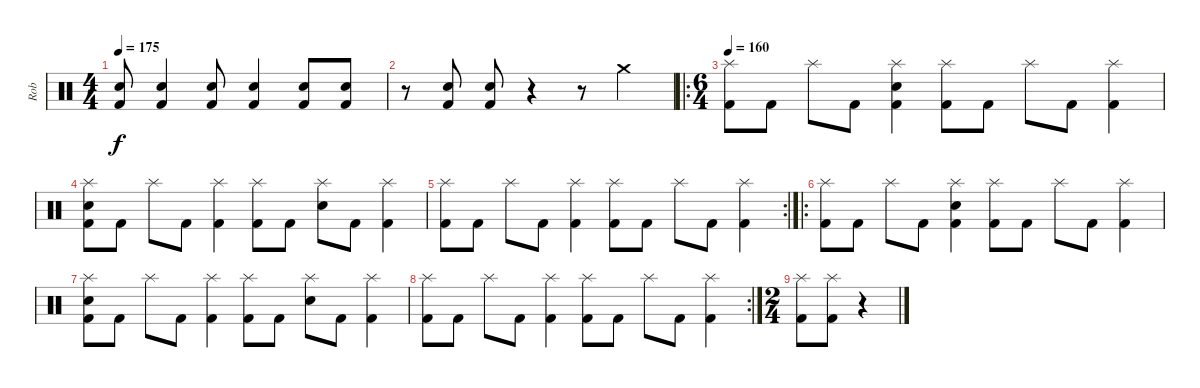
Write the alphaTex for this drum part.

\track ("Rob" "Rob") {instrument percussion}
\staff {score}
\articulation defaults
\ts (4 4)
\tempo 175
\clef neutral
\ks c
("Electric Snare (hit)" "Kick (hit) 2").8{dy f} ("Electric Snare (hit)" "Kick (hit) 2").4 ("Electric Snare (hit)" "Kick (hit) 2").8 ("Electric Snare (hit)" "Kick (hit) 2").4 ("Electric Snare (hit)" "Kick (hit) 2").8 ("Electric Snare (hit)" "Kick (hit) 2").8 |
r.8 ("Electric Snare (hit)" "Kick (hit) 2").8 ("Electric Snare (hit)" "Kick (hit) 2").8 r.4 r.8 "Crash medium (hit)".4 |
\ro
\ts (6 4)
\tempo 160
("Splash (hit)" "Kick (hit) 2").8{volume 16} "Kick (hit) 2".8 "Splash (hit)".8 "Kick (hit) 2".8 ("Splash (hit)" "Electric Snare (hit)" "Kick (hit) 2").4 ("Splash (hit)" "Kick (hit) 2").8 "Kick (hit) 2".8 "Splash (hit)".8 "Kick (hit) 2".8 ("Splash (hit)" "Kick (hit) 2").4 |
("Splash (hit)" "Electric Snare (hit)" "Kick (hit) 2").8 "Kick (hit) 2".8 "Splash (hit)".8 "Kick (hit) 2".8 ("Splash (hit)" "Kick (hit) 2").4 ("Splash (hit)" "Kick (hit) 2").8 "Kick (hit) 2".8 ("Splash (hit)" "Electric Snare (hit)").8 "Kick (hit) 2".8 ("Splash (hit)" "Kick (hit) 2").4 |
\rc 2
("Splash (hit)" "Kick (hit) 2").8 "Kick (hit) 2".8 "Splash (hit)".8 "Kick (hit) 2".8 ("Splash (hit)" "Kick (hit) 2").4 ("Splash (hit)" "Kick (hit) 2").8 "Kick (hit) 2".8 "Splash (hit)".8 "Kick (hit) 2".8 ("Splash (hit)" "Kick (hit) 2").4 |
\ro
("Splash (hit)" "Kick (hit) 2").8{volume 16} "Kick (hit) 2".8 "Splash (hit)".8 "Kick (hit) 2".8 ("Splash (hit)" "Electric Snare (hit)" "Kick (hit) 2").4 ("Splash (hit)" "Kick (hit) 2").8 "Kick (hit) 2".8 "Splash (hit)".8 "Kick (hit) 2".8 ("Splash (hit)" "Kick (hit) 2").4 |
("Splash (hit)" "Electric Snare (hit)" "Kick (hit) 2").8 "Kick (hit) 2".8 "Splash (hit)".8 "Kick (hit) 2".8 ("Splash (hit)" "Kick (hit) 2").4 ("Splash (hit)" "Kick (hit) 2").8 "Kick (hit) 2".8 ("Splash (hit)" "Electric Snare (hit)").8 "Kick (hit) 2".8 ("Splash (hit)" "Kick (hit) 2").4 |
\rc 2
("Splash (hit)" "Kick (hit) 2").8 "Kick (hit) 2".8 "Splash (hit)".8 "Kick (hit) 2".8 ("Splash (hit)" "Kick (hit) 2").4 ("Splash (hit)" "Kick (hit) 2").8 "Kick (hit) 2".8 "Splash (hit)".8 "Kick (hit) 2".8 ("Splash (hit)" "Kick (hit) 2").4 |
\ts (2 4)
("Splash (hit)" "Kick (hit) 2").8 ("Splash (hit)" "Kick (hit) 2").8 r.4
